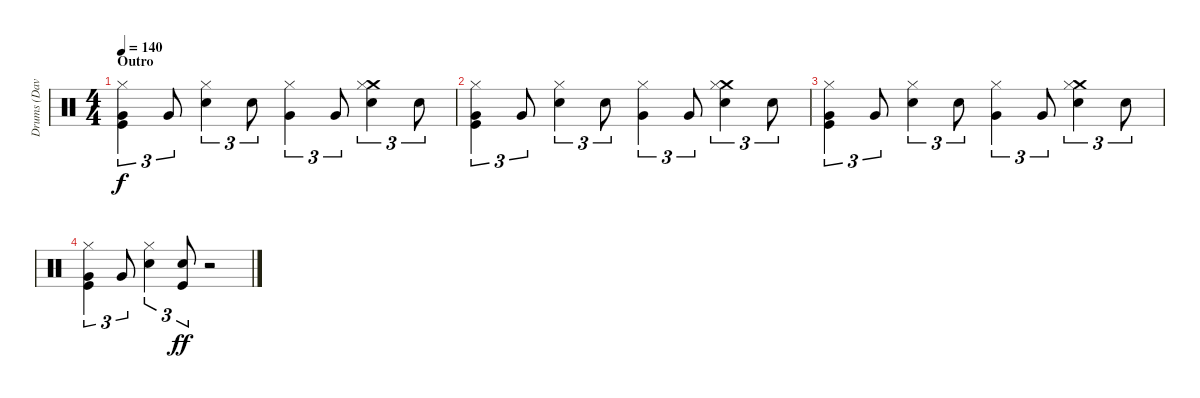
\track ("Drums (Dave Atkins)" "Drums (Dav") {instrument percussion}
\staff {score}
\articulation defaults
\ts (4 4)
\section ("" "Outro")
\tempo 140
\clef neutral
\ks c
("Hi-Hat (closed)" "Very Low Tom (hit)" "Kick (hit)").4{tu (3 2) dy f} "Very Low Tom (hit)".8{tu (3 2)} ("Hi-Hat (closed)" "Snare (hit) 2").4{tu (3 2)} "Snare (hit) 2".8{tu (3 2)} ("Hi-Hat (closed)" "Very Low Tom (hit)").4{tu (3 2)} "Very Low Tom (hit)".8{tu (3 2)} ("Crash medium (hit)" "Hi-Hat (closed)" "Snare (hit) 2").4{tu (3 2)} "Snare (hit) 2".8{tu (3 2)} |
("Hi-Hat (closed)" "Very Low Tom (hit)" "Kick (hit)").4{tu (3 2)} "Very Low Tom (hit)".8{tu (3 2)} ("Hi-Hat (closed)" "Snare (hit) 2").4{tu (3 2)} "Snare (hit) 2".8{tu (3 2)} ("Hi-Hat (closed)" "Very Low Tom (hit)").4{tu (3 2)} "Very Low Tom (hit)".8{tu (3 2)} ("Crash medium (hit)" "Hi-Hat (closed)" "Snare (hit) 2").4{tu (3 2)} "Snare (hit) 2".8{tu (3 2)} |
("Hi-Hat (closed)" "Very Low Tom (hit)" "Kick (hit)").4{tu (3 2)} "Very Low Tom (hit)".8{tu (3 2)} ("Hi-Hat (closed)" "Snare (hit) 2").4{tu (3 2)} "Snare (hit) 2".8{tu (3 2)} ("Hi-Hat (closed)" "Very Low Tom (hit)").4{tu (3 2)} "Very Low Tom (hit)".8{tu (3 2)} ("Crash medium (hit)" "Hi-Hat (closed)" "Snare (hit) 2").4{tu (3 2)} "Snare (hit) 2".8{tu (3 2)} |
("Hi-Hat (closed)" "Very Low Tom (hit)" "Kick (hit)").4{tu (3 2)} "Very Low Tom (hit)".8{tu (3 2)} ("Hi-Hat (closed)" "Snare (hit) 2").4{tu (3 2)} ("Snare (hit) 2" "Kick (hit)").8{tu (3 2) dy ff} r.2
